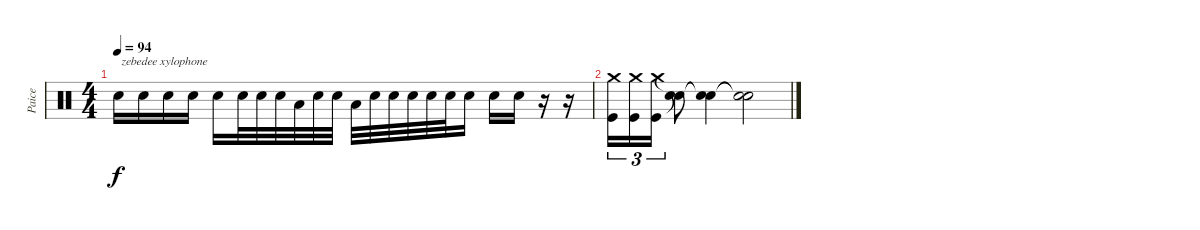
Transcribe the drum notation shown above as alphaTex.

\track ("Paice" "Paice") {instrument percussion}
\staff {score}
\articulation defaults
\ts (4 4)
\tempo 94
\clef neutral
\ks c "Snare (hit) 2".16{txt " zebedee xylophone" dy f} "Snare (hit) 2".16 "Snare (hit) 2".16 "Snare (hit) 2".16 "Snare (hit) 2".16 "Snare (hit) 2".32 "Snare (hit) 2".32 "Snare (hit) 2".32 "Low Tom (hit)".32 "Snare (hit) 2".32 "Snare (hit) 2".32 "Low Tom (hit)".32 "Snare (hit) 2".32 "Snare (hit) 2".32 "Snare (hit) 2".32 "Snare (hit) 2".32 "Snare (hit) 2".32 "Snare (hit) 2".16 "Snare (hit) 2".16 "Snare (hit) 2".16
r.16 r.16 |
("Crash medium (hit)" "Kick (hit)").16{tu (3 2)} ("Crash medium (hit)" "Kick (hit)").16{tu (3 2)} ("Crash medium (hit)" "Kick (hit)").16{tu (3 2)} ("Snare (hit)"{t} "Snare (hit)"{t}).8 ("Snare (hit)"{t} "Snare (hit)"{t}).4 ("Snare (hit)"{t} "Snare (hit)"{t}).2
